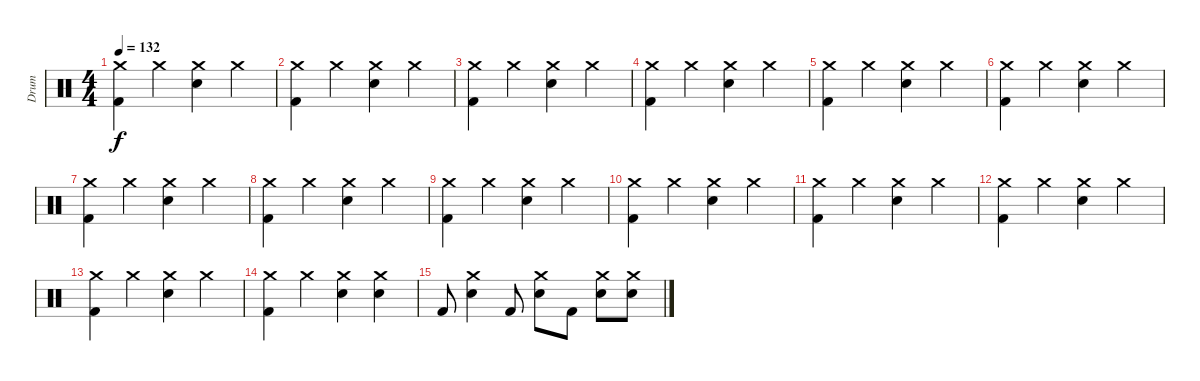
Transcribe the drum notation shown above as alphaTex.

\track ("Drum" "Drum") {instrument percussion}
\staff {score}
\articulation defaults
\ts (4 4)
\tempo 132
\clef neutral
\ks c
("Crash medium (hit)" "Kick (hit) 2").4{dy f} "Crash medium (hit)".4 ("Crash medium (hit)" "Snare (hit) 2").4 "Crash medium (hit)".4 |
("Crash medium (hit)" "Kick (hit) 2").4 "Crash medium (hit)".4 ("Crash medium (hit)" "Snare (hit) 2").4 "Crash medium (hit)".4 |
("Crash medium (hit)" "Kick (hit) 2").4 "Crash medium (hit)".4 ("Crash medium (hit)" "Snare (hit) 2").4 "Crash medium (hit)".4 |
("Crash medium (hit)" "Kick (hit) 2").4 "Crash medium (hit)".4 ("Crash medium (hit)" "Snare (hit) 2").4 "Crash medium (hit)".4 |
("Crash medium (hit)" "Kick (hit) 2").4 "Crash medium (hit)".4 ("Crash medium (hit)" "Snare (hit) 2").4 "Crash medium (hit)".4 |
("Crash medium (hit)" "Kick (hit) 2").4 "Crash medium (hit)".4 ("Crash medium (hit)" "Snare (hit) 2").4 "Crash medium (hit)".4 |
("Crash medium (hit)" "Kick (hit) 2").4 "Crash medium (hit)".4 ("Crash medium (hit)" "Snare (hit) 2").4 "Crash medium (hit)".4 |
("Crash medium (hit)" "Kick (hit) 2").4 "Crash medium (hit)".4 ("Crash medium (hit)" "Snare (hit) 2").4 "Crash medium (hit)".4 |
("Crash medium (hit)" "Kick (hit) 2").4 "Crash medium (hit)".4 ("Crash medium (hit)" "Snare (hit) 2").4 "Crash medium (hit)".4 |
("Crash medium (hit)" "Kick (hit) 2").4 "Crash medium (hit)".4 ("Crash medium (hit)" "Snare (hit) 2").4 "Crash medium (hit)".4 |
("Crash medium (hit)" "Kick (hit) 2").4 "Crash medium (hit)".4 ("Crash medium (hit)" "Snare (hit) 2").4 "Crash medium (hit)".4 |
("Crash medium (hit)" "Kick (hit) 2").4 "Crash medium (hit)".4 ("Crash medium (hit)" "Snare (hit) 2").4 "Crash medium (hit)".4 |
("Crash medium (hit)" "Kick (hit) 2").4 "Crash medium (hit)".4 ("Crash medium (hit)" "Snare (hit) 2").4 "Crash medium (hit)".4 |
("Crash medium (hit)" "Kick (hit) 2").4 "Crash medium (hit)".4 ("Crash medium (hit)" "Snare (hit) 2").4 ("Crash medium (hit)" "Snare (hit) 2").4 |
"Kick (hit) 2".8 ("Crash medium (hit)" "Snare (hit) 2").4 "Kick (hit) 2".8 ("Crash medium (hit)" "Snare (hit) 2").8 "Kick (hit) 2".8 ("Crash medium (hit)" "Snare (hit) 2").8 ("Crash medium (hit)" "Snare (hit) 2").8
